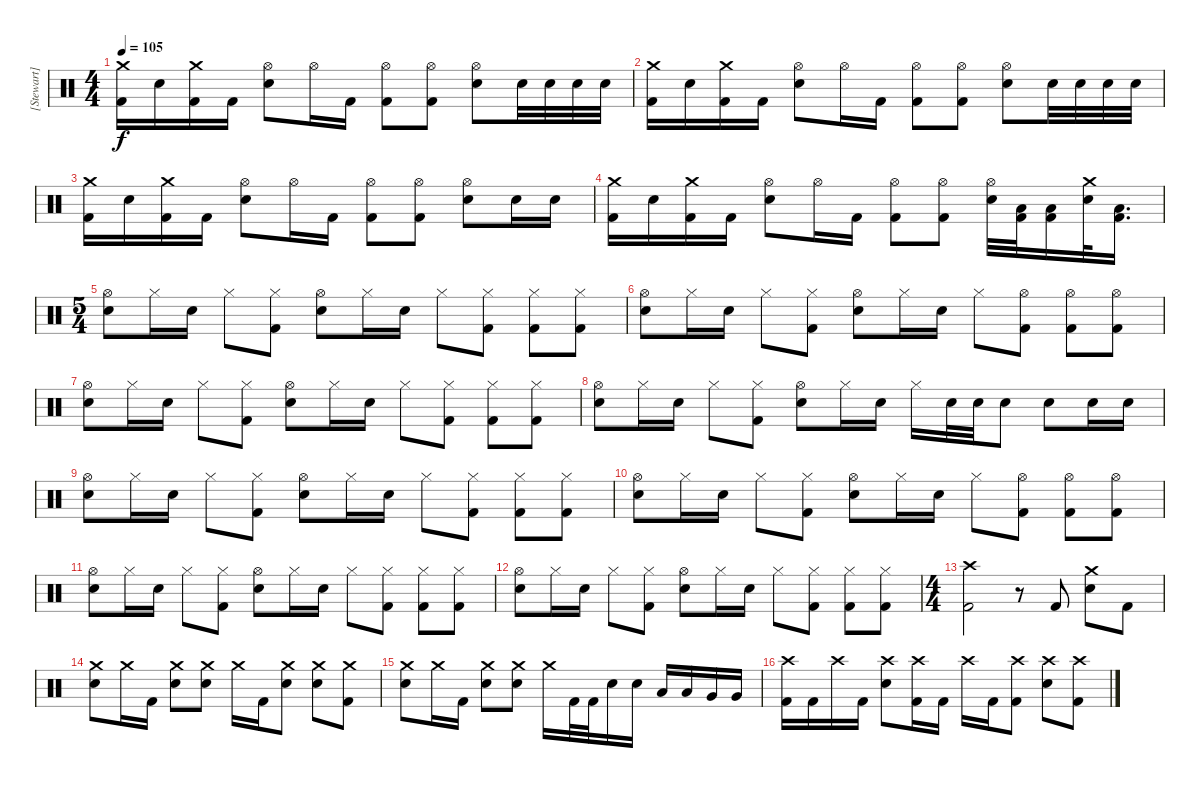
\track ("[Stewart]" "[Stewart]") {instrument percussion}
\staff {score}
\articulation defaults
\ts (4 4)
\tempo 105
\clef neutral
\ks c
("Crash medium (hit)" "Kick (hit) 2").16{dy f} "Electric Snare (hit)".16 ("Crash medium (hit)" "Kick (hit) 2").16 "Kick (hit) 2".16 ("Hi-Hat (open)" "Electric Snare (hit)").8 "Hi-Hat (open)".16 "Kick (hit) 2".16 ("Hi-Hat (open)" "Kick (hit) 2").8 ("Hi-Hat (open)" "Kick (hit) 2").8 ("Hi-Hat (open)" "Electric Snare (hit)").8 "Electric Snare (hit)".32 "Electric Snare (hit)".32 "Electric Snare (hit)".32 "Electric Snare (hit)".32 |
("Crash medium (hit)" "Kick (hit) 2").16 "Electric Snare (hit)".16 ("Crash medium (hit)" "Kick (hit) 2").16 "Kick (hit) 2".16 ("Hi-Hat (open)" "Electric Snare (hit)").8 "Hi-Hat (open)".16 "Kick (hit) 2".16 ("Hi-Hat (open)" "Kick (hit) 2").8 ("Hi-Hat (open)" "Kick (hit) 2").8 ("Hi-Hat (open)" "Electric Snare (hit)").8 "Electric Snare (hit)".32 "Electric Snare (hit)".32 "Electric Snare (hit)".32 "Electric Snare (hit)".32 |
("Crash medium (hit)" "Kick (hit) 2").16 "Electric Snare (hit)".16 ("Crash medium (hit)" "Kick (hit) 2").16 "Kick (hit) 2".16 ("Hi-Hat (open)" "Electric Snare (hit)").8 "Hi-Hat (open)".16 "Kick (hit) 2".16 ("Hi-Hat (open)" "Kick (hit) 2").8 ("Hi-Hat (open)" "Kick (hit) 2").8 ("Hi-Hat (open)" "Electric Snare (hit)").8 "Electric Snare (hit)".16 "Electric Snare (hit)".16 |
("Crash medium (hit)" "Kick (hit) 2").16 "Electric Snare (hit)".16 ("Crash medium (hit)" "Kick (hit) 2").16 "Kick (hit) 2".16 ("Hi-Hat (open)" "Electric Snare (hit)").8 "Hi-Hat (open)".16 "Kick (hit) 2".16 ("Hi-Hat (open)" "Kick (hit) 2").8 ("Hi-Hat (open)" "Kick (hit) 2").8 ("Hi-Hat (open)" "Electric Snare (hit)").32 ("Low Tom (hit)" "Kick (hit) 2").32 ("Low Tom (hit)" "Kick (hit) 2").16 ("Crash medium (hit)" "Electric Snare (hit)").32 ("Low Tom (hit)" "Kick (hit) 2").16{d} |
\ts (5 4)
("Hi-Hat (open)" "Electric Snare (hit)").8 "Hi-Hat (closed)".16 "Electric Snare (hit)".16 "Hi-Hat (closed)".8 ("Hi-Hat (closed)" "Kick (hit) 2").8 ("Hi-Hat (open)" "Electric Snare (hit)").8 "Hi-Hat (closed)".16 "Electric Snare (hit)".16 "Hi-Hat (closed)".8 ("Hi-Hat (closed)" "Kick (hit) 2").8 ("Hi-Hat (closed)" "Kick (hit) 2").8 ("Hi-Hat (closed)" "Kick (hit) 2").8 |
("Hi-Hat (open)" "Electric Snare (hit)").8 "Hi-Hat (closed)".16 "Electric Snare (hit)".16 "Hi-Hat (closed)".8 ("Hi-Hat (closed)" "Kick (hit) 2").8 ("Hi-Hat (open)" "Electric Snare (hit)").8 "Hi-Hat (closed)".16 "Electric Snare (hit)".16 "Hi-Hat (closed)".8 ("Hi-Hat (open)" "Kick (hit) 2").8 ("Hi-Hat (open)" "Kick (hit) 2").8 ("Hi-Hat (open)" "Kick (hit) 2").8 |
("Hi-Hat (open)" "Electric Snare (hit)").8 "Hi-Hat (closed)".16 "Electric Snare (hit)".16 "Hi-Hat (closed)".8 ("Hi-Hat (closed)" "Kick (hit) 2").8 ("Hi-Hat (open)" "Electric Snare (hit)").8 "Hi-Hat (closed)".16 "Electric Snare (hit)".16 "Hi-Hat (closed)".8 ("Hi-Hat (closed)" "Kick (hit) 2").8 ("Hi-Hat (closed)" "Kick (hit) 2").8 ("Hi-Hat (closed)" "Kick (hit) 2").8 |
("Hi-Hat (open)" "Electric Snare (hit)").8 "Hi-Hat (closed)".16 "Electric Snare (hit)".16 "Hi-Hat (closed)".8 ("Hi-Hat (closed)" "Kick (hit) 2").8 ("Hi-Hat (open)" "Electric Snare (hit)").8 "Hi-Hat (closed)".16 "Electric Snare (hit)".16 "Hi-Hat (closed)".16 "Electric Snare (hit)".32 "Electric Snare (hit)".32 "Electric Snare (hit)".8 "Electric Snare (hit)".8 "Electric Snare (hit)".16 "Electric Snare (hit)".16 |
("Hi-Hat (open)" "Electric Snare (hit)").8 "Hi-Hat (closed)".16 "Electric Snare (hit)".16 "Hi-Hat (closed)".8 ("Hi-Hat (closed)" "Kick (hit) 2").8 ("Hi-Hat (open)" "Electric Snare (hit)").8 "Hi-Hat (closed)".16 "Electric Snare (hit)".16 "Hi-Hat (closed)".8 ("Hi-Hat (closed)" "Kick (hit) 2").8 ("Hi-Hat (closed)" "Kick (hit) 2").8 ("Hi-Hat (closed)" "Kick (hit) 2").8 |
("Hi-Hat (open)" "Electric Snare (hit)").8 "Hi-Hat (closed)".16 "Electric Snare (hit)".16 "Hi-Hat (closed)".8 ("Hi-Hat (closed)" "Kick (hit) 2").8 ("Hi-Hat (open)" "Electric Snare (hit)").8 "Hi-Hat (closed)".16 "Electric Snare (hit)".16 "Hi-Hat (closed)".8 ("Hi-Hat (open)" "Kick (hit) 2").8 ("Hi-Hat (open)" "Kick (hit) 2").8 ("Hi-Hat (open)" "Kick (hit) 2").8 |
("Hi-Hat (open)" "Electric Snare (hit)").8 "Hi-Hat (closed)".16 "Electric Snare (hit)".16 "Hi-Hat (closed)".8 ("Hi-Hat (closed)" "Kick (hit) 2").8 ("Hi-Hat (open)" "Electric Snare (hit)").8 "Hi-Hat (closed)".16 "Electric Snare (hit)".16 "Hi-Hat (closed)".8 ("Hi-Hat (closed)" "Kick (hit) 2").8 ("Hi-Hat (closed)" "Kick (hit) 2").8 ("Hi-Hat (closed)" "Kick (hit) 2").8 |
("Hi-Hat (open)" "Electric Snare (hit)").8 "Hi-Hat (closed)".16 "Electric Snare (hit)".16 "Hi-Hat (closed)".8 ("Hi-Hat (closed)" "Kick (hit) 2").8 ("Hi-Hat (open)" "Electric Snare (hit)").8 "Hi-Hat (closed)".16 "Electric Snare (hit)".16 "Hi-Hat (closed)".8 ("Hi-Hat (closed)" "Kick (hit) 2").8 ("Hi-Hat (closed)" "Kick (hit) 2").8 ("Hi-Hat (closed)" "Kick (hit) 2").8 |
\ts (4 4)
("Crash high (hit)" "Kick (hit) 2").2 r.8 "Kick (hit) 2".8 ("Crash medium (hit)" "Electric Snare (hit)").8 "Kick (hit) 2".8 |
("Crash medium (hit)" "Electric Snare (hit)").8 "Crash medium (hit)".16 "Kick (hit) 2".16 ("Crash medium (hit)" "Electric Snare (hit)").8 ("Crash medium (hit)" "Electric Snare (hit)").8 "Crash medium (hit)".16 "Kick (hit) 2".16 ("Crash medium (hit)" "Electric Snare (hit)").8 ("Crash medium (hit)" "Electric Snare (hit)").8 ("Crash medium (hit)" "Kick (hit) 2").8 |
("Crash medium (hit)" "Electric Snare (hit)").8 "Crash medium (hit)".16 "Kick (hit) 2".16 ("Crash medium (hit)" "Electric Snare (hit)").8 ("Crash medium (hit)" "Electric Snare (hit)").8 "Crash medium (hit)".16 "Kick (hit) 2".32 "Kick (hit) 2".32 "Electric Snare (hit)".16 "Electric Snare (hit)".16 "Low Tom (hit)".16 "Low Tom (hit)".16 "Very Low Tom (hit)".16 "Very Low Tom (hit)".16 |
("Crash high (hit)" "Kick (hit) 2").16 "Kick (hit) 2".16 "Crash high (hit)".16 "Kick (hit) 2".16 ("Crash high (hit)" "Electric Snare (hit)").8 ("Crash high (hit)" "Kick (hit) 2").16 "Kick (hit) 2".16 "Crash high (hit)".16 "Kick (hit) 2".16 ("Crash high (hit)" "Kick (hit) 2").8 ("Crash high (hit)" "Electric Snare (hit)").8 ("Crash high (hit)" "Kick (hit) 2").8
